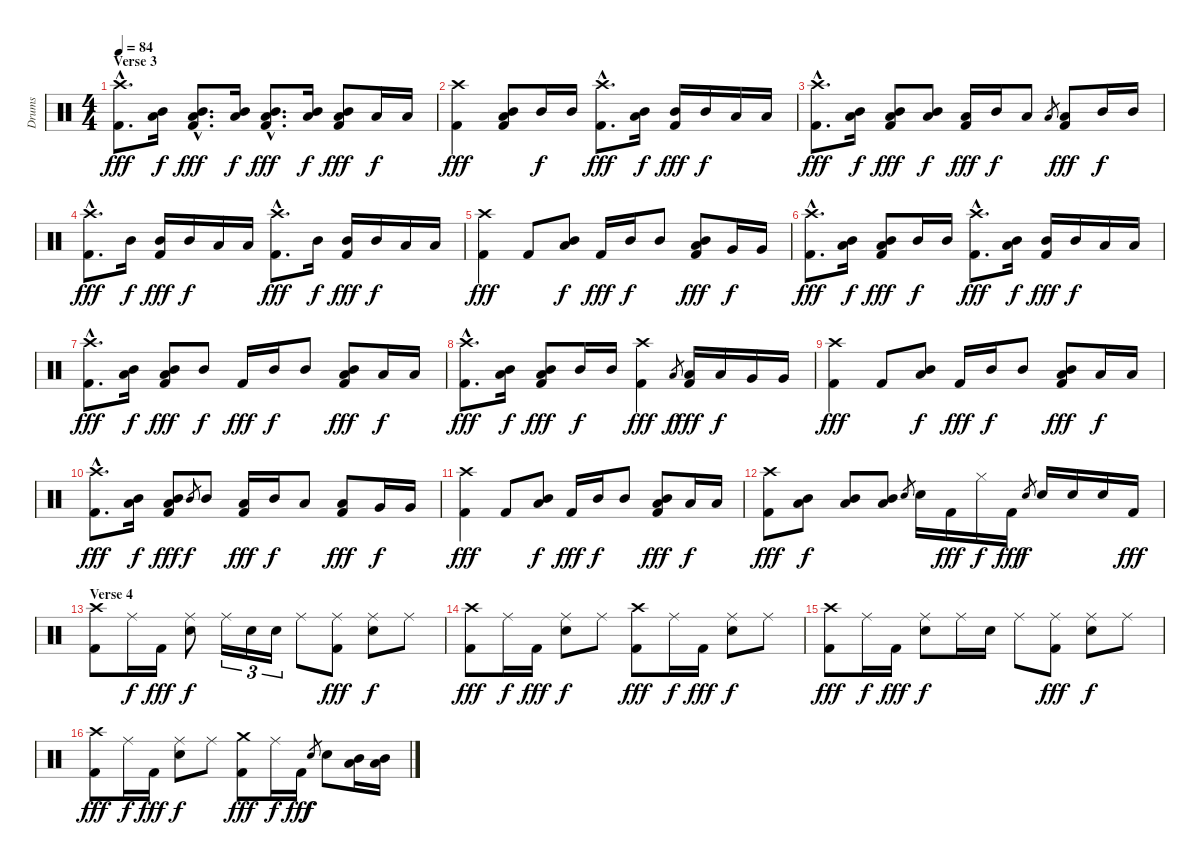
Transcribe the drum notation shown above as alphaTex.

\track ("Drums" "Drums") {instrument percussion}
\staff {score}
\articulation defaults
\ts (4 4)
\section ("" "Verse 3")
\tempo 84
\clef neutral
\ks c
("Crash high (hit)"{hac} "Kick (hit) 2"{hac}).8{d dy fff} ("Mid Tom (hit)" "Low Tom (hit)").16{dy f} ("Mid Tom (hit)"{hac} "Low Tom (hit)"{hac} "Kick (hit) 2"{hac}).8{d dy fff} ("Mid Tom (hit)" "Low Tom (hit)").16{dy f} ("Mid Tom (hit)"{hac} "Low Tom (hit)"{hac} "Kick (hit) 2"{hac}).8{d dy fff} ("Mid Tom (hit)" "Low Tom (hit)").16{dy f} ("Mid Tom (hit)" "Low Tom (hit)" "Kick (hit) 2").8{dy fff} "Low Tom (hit)".16{dy f} "Low Tom (hit)".16 |
("Crash high (hit)" "Kick (hit) 2").4{dy fff} ("Mid Tom (hit)" "Low Tom (hit)" "Kick (hit) 2").8 "Mid Tom (hit)".16{dy f} "Mid Tom (hit)".16 ("Crash high (hit)"{hac} "Kick (hit) 2"{hac}).8{d dy fff} ("Mid Tom (hit)" "Low Tom (hit)").16{dy f} ("Mid Tom (hit)" "Kick (hit) 2").16{dy fff} "Mid Tom (hit)".16{dy f} "Low Tom (hit)".16 "Low Tom (hit)".16 |
("Crash high (hit)"{hac} "Kick (hit) 2"{hac}).8{d dy fff} ("Mid Tom (hit)" "Low Tom (hit)").16{dy f} ("Mid Tom (hit)" "Low Tom (hit)" "Kick (hit) 2").8{dy fff} ("Mid Tom (hit)" "Low Tom (hit)").8{dy f} ("Low Tom (hit)" "Kick (hit) 2").16{dy fff} "Mid Tom (hit)".16{dy f} "Low Tom (hit)".8 "Low Tom (hit)".8{gr} ("Low Tom (hit)" "Kick (hit) 2").8{dy fff} "Mid Tom (hit)".16{dy f} "Mid Tom (hit)".16 |
("Crash high (hit)"{hac} "Kick (hit) 2"{hac}).8{d dy fff} "Mid Tom (hit)".16{dy f} ("Mid Tom (hit)" "Kick (hit) 2").16{dy fff} "Mid Tom (hit)".16{dy f} "Low Tom (hit)".16 "Low Tom (hit)".16 ("Crash high (hit)"{hac} "Kick (hit) 2"{hac}).8{d dy fff} "Mid Tom (hit)".16{dy f} ("Mid Tom (hit)" "Kick (hit) 2").16{dy fff} "Mid Tom (hit)".16{dy f} "Low Tom (hit)".16 "Low Tom (hit)".16 |
("Crash high (hit)" "Kick (hit) 2").4{dy fff} "Kick (hit) 2".8 ("Mid Tom (hit)" "Low Tom (hit)").8{dy f} "Kick (hit) 2".16{dy fff} "Mid Tom (hit)".16{dy f} "Mid Tom (hit)".8 ("Mid Tom (hit)" "Low Tom (hit)" "Kick (hit) 2").8{dy fff} "Very Low Tom (hit)".16{dy f} "Very Low Tom (hit)".16 |
("Crash high (hit)"{hac} "Kick (hit) 2"{hac}).8{d dy fff} ("Mid Tom (hit)" "Low Tom (hit)").16{dy f} ("Mid Tom (hit)" "Low Tom (hit)" "Kick (hit) 2").8{dy fff} "Mid Tom (hit)".16{dy f} "Mid Tom (hit)".16 ("Crash high (hit)"{hac} "Kick (hit) 2"{hac}).8{d dy fff} ("Mid Tom (hit)" "Low Tom (hit)").16{dy f} ("Mid Tom (hit)" "Kick (hit) 2").16{dy fff} "Mid Tom (hit)".16{dy f} "Low Tom (hit)".16 "Low Tom (hit)".16 |
("Crash high (hit)"{hac} "Kick (hit) 2"{hac}).8{d dy fff} ("Mid Tom (hit)" "Low Tom (hit)").16{dy f} ("Mid Tom (hit)" "Low Tom (hit)" "Kick (hit) 2").8{dy fff} "Mid Tom (hit)".8{dy f} "Kick (hit) 2".16{dy fff} "Mid Tom (hit)".16{dy f} "Mid Tom (hit)".8 ("Mid Tom (hit)" "Low Tom (hit)" "Kick (hit) 2").8{dy fff} "Low Tom (hit)".16{dy f} "Low Tom (hit)".16 |
("Crash high (hit)"{hac} "Kick (hit) 2"{hac}).8{d dy fff} ("Mid Tom (hit)" "Low Tom (hit)").16{dy f} ("Mid Tom (hit)" "Low Tom (hit)" "Kick (hit) 2").8{dy fff} "Mid Tom (hit)".16{dy f} "Mid Tom (hit)".16 ("Crash high (hit)" "Kick (hit) 2").4{dy fff} "Low Tom (hit)".8{gr dy f} ("Low Tom (hit)" "Kick (hit) 2").16{dy fff} "Low Tom (hit)".16{dy f} "Very Low Tom (hit)".16 "Very Low Tom (hit)".16 |
("Crash high (hit)" "Kick (hit) 2").4{dy fff} "Kick (hit) 2".8 ("Mid Tom (hit)" "Low Tom (hit)").8{dy f} "Kick (hit) 2".16{dy fff} "Mid Tom (hit)".16{dy f} "Mid Tom (hit)".8 ("Mid Tom (hit)" "Low Tom (hit)" "Kick (hit) 2").8{dy fff} "Low Tom (hit)".16{dy f} "Low Tom (hit)".16 |
("Crash high (hit)"{hac} "Kick (hit) 2"{hac}).8{d dy fff} ("Mid Tom (hit)" "Low Tom (hit)").16{dy f} ("Mid Tom (hit)" "Low Tom (hit)" "Kick (hit) 2").8{dy fff} "Mid Tom (hit)".8{gr dy f} "Mid Tom (hit)".8 ("Low Tom (hit)" "Kick (hit) 2").16{dy fff} "Mid Tom (hit)".16{dy f} "Low Tom (hit)".8 ("Low Tom (hit)" "Kick (hit) 2").8{dy fff} "Very Low Tom (hit)".16{dy f} "Very Low Tom (hit)".16 |
("Crash high (hit)" "Kick (hit) 2").4{dy fff} "Kick (hit) 2".8 ("Mid Tom (hit)" "Low Tom (hit)").8{dy f} "Kick (hit) 2".16{dy fff} "Mid Tom (hit)".16{dy f} "Mid Tom (hit)".8 ("Mid Tom (hit)" "Low Tom (hit)" "Kick (hit) 2").8{dy fff} "Low Tom (hit)".16{dy f} "Low Tom (hit)".16 |
("Crash high (hit)" "Kick (hit) 2").8{dy fff} ("Mid Tom (hit)" "Low Tom (hit)").8{dy f} ("Mid Tom (hit)" "Low Tom (hit)").8 ("Mid Tom (hit)" "Low Tom (hit)").8 "Electric Snare (hit)".8{gr} "Electric Snare (hit)".16 "Kick (hit) 2".16{dy fff} "Hi-Hat (closed)".16{dy f} "Kick (hit) 2".16{dy fff} "Electric Snare (hit)".8{gr dy f} "Electric Snare (hit)".16 "Electric Snare (hit)".16 "Electric Snare (hit)".16 "Kick (hit) 2".16{dy fff} |
\section ("" "Verse 4")
("Crash high (hit)" "Kick (hit) 2").8 "Ride (middle)".16{dy f} "Kick (hit) 2".16{dy fff} ("Ride (middle)" "Electric Snare (hit)").8{dy f} "Ride (middle)".16{tu (3 2)} "Electric Snare (hit)".16{tu (3 2)} "Electric Snare (hit)".16{tu (3 2)} "Ride (middle)".8 ("Ride (middle)" "Kick (hit) 2").8{dy fff} ("Ride (middle)" "Electric Snare (hit)").8{dy f} "Ride (middle)".8 |
("Crash high (hit)" "Kick (hit) 2").8{dy fff} "Ride (middle)".16{dy f} "Kick (hit) 2".16{dy fff} ("Ride (middle)" "Electric Snare (hit)").8{dy f} "Ride (middle)".8 ("Crash high (hit)" "Kick (hit) 2").8{dy fff} "Ride (middle)".16{dy f} "Kick (hit) 2".16{dy fff} ("Ride (middle)" "Electric Snare (hit)").8{dy f} "Ride (middle)".8 |
("Crash high (hit)" "Kick (hit) 2").8{dy fff} "Ride (middle)".16{dy f} "Kick (hit) 2".16{dy fff} ("Ride (middle)" "Electric Snare (hit)").8{dy f} "Ride (middle)".16 "Electric Snare (hit)".16 "Ride (middle)".8 ("Ride (middle)" "Kick (hit) 2").8{dy fff} ("Ride (middle)" "Electric Snare (hit)").8{dy f} "Ride (middle)".8 |
("Crash high (hit)" "Kick (hit) 2").8{dy fff} "Ride (middle)".16{dy f} "Kick (hit) 2".16{dy fff} ("Ride (middle)" "Electric Snare (hit)").8{dy f} "Ride (middle)".8 ("Crash medium (hit)" "Kick (hit) 2").8{dy fff} "Ride (middle)".16{dy f} "Kick (hit) 2".16{dy fff} "Electric Snare (hit)".8{gr dy f} "Electric Snare (hit)".8 ("Mid Tom (hit)" "Low Tom (hit)").16 ("Mid Tom (hit)" "Low Tom (hit)").16
